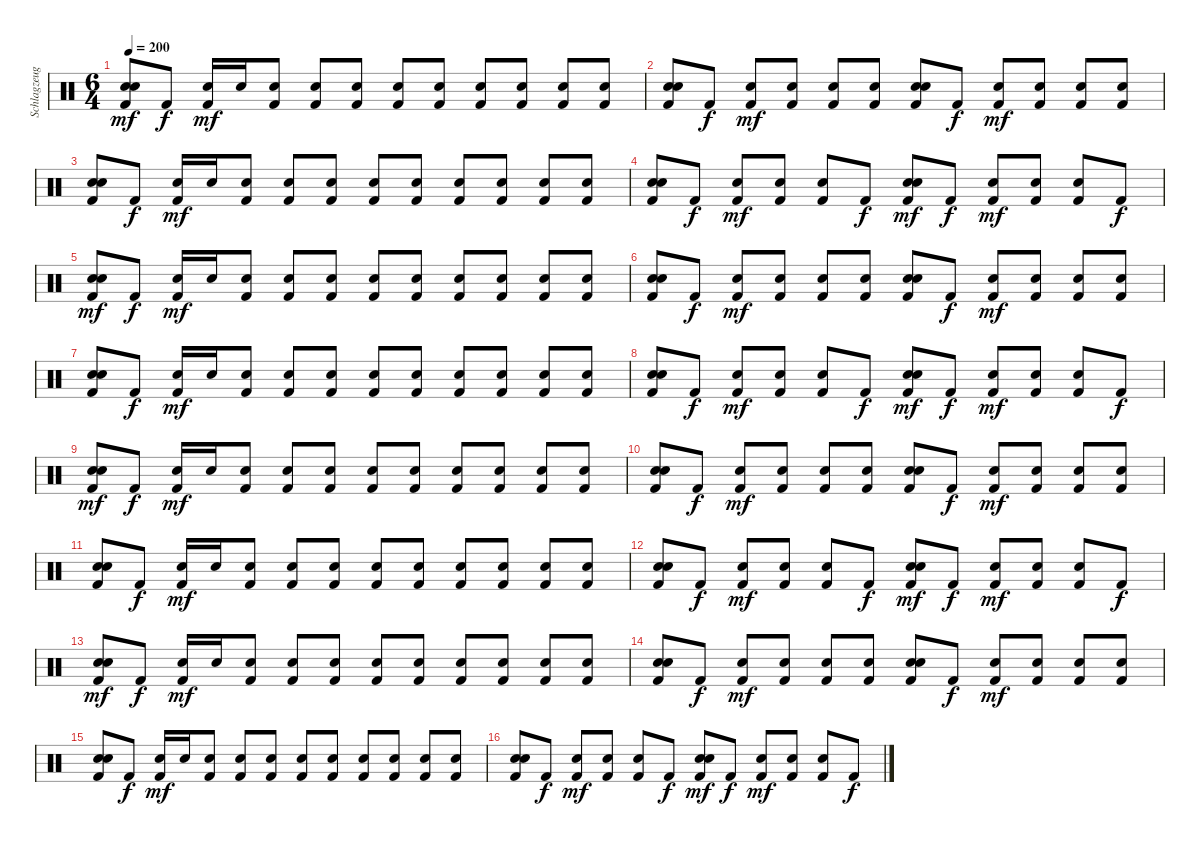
\track ("Schlagzeug" "Schlagzeug") {instrument percussion}
\staff {score}
\articulation defaults
\ts (6 4)
\tempo 200
\clef neutral
\ks c
("Electric Snare (hit)" "Electric Snare (hit)" "Kick (hit) 2").8{bd 480 dy mf} "Kick (hit) 2".8{dy f} ("Electric Snare (hit)" "Kick (hit) 2").16{dy mf} "Electric Snare (hit)".16 ("Electric Snare (hit)" "Kick (hit) 2").8 ("Electric Snare (hit)" "Kick (hit) 2").8 ("Electric Snare (hit)" "Kick (hit) 2").8 ("Electric Snare (hit)" "Kick (hit) 2").8 ("Electric Snare (hit)" "Kick (hit) 2").8 ("Electric Snare (hit)" "Kick (hit) 2").8 ("Electric Snare (hit)" "Kick (hit) 2").8 ("Electric Snare (hit)" "Kick (hit) 2").8 ("Electric Snare (hit)" "Kick (hit) 2").8 |
("Electric Snare (hit)" "Electric Snare (hit)" "Kick (hit) 2").8{bd 480} "Kick (hit) 2".8{dy f} ("Electric Snare (hit)" "Kick (hit) 2").8{dy mf} ("Electric Snare (hit)" "Kick (hit) 2").8 ("Electric Snare (hit)" "Kick (hit) 2").8 ("Electric Snare (hit)" "Kick (hit) 2").8 ("Electric Snare (hit)" "Electric Snare (hit)" "Kick (hit) 2").8{bd 480} "Kick (hit) 2".8{dy f} ("Electric Snare (hit)" "Kick (hit) 2").8{dy mf} ("Electric Snare (hit)" "Kick (hit) 2").8 ("Electric Snare (hit)" "Kick (hit) 2").8 ("Electric Snare (hit)" "Kick (hit) 2").8 |
("Electric Snare (hit)" "Electric Snare (hit)" "Kick (hit) 2").8{bd 480} "Kick (hit) 2".8{dy f} ("Electric Snare (hit)" "Kick (hit) 2").16{dy mf} "Electric Snare (hit)".16 ("Electric Snare (hit)" "Kick (hit) 2").8 ("Electric Snare (hit)" "Kick (hit) 2").8 ("Electric Snare (hit)" "Kick (hit) 2").8 ("Electric Snare (hit)" "Kick (hit) 2").8 ("Electric Snare (hit)" "Kick (hit) 2").8 ("Electric Snare (hit)" "Kick (hit) 2").8 ("Electric Snare (hit)" "Kick (hit) 2").8 ("Electric Snare (hit)" "Kick (hit) 2").8 ("Electric Snare (hit)" "Kick (hit) 2").8 |
("Electric Snare (hit)" "Electric Snare (hit)" "Kick (hit) 2").8{bd 480} "Kick (hit) 2".8{dy f} ("Electric Snare (hit)" "Kick (hit) 2").8{dy mf} ("Electric Snare (hit)" "Kick (hit) 2").8 ("Electric Snare (hit)" "Kick (hit) 2").8 "Kick (hit) 2".8{dy f} ("Electric Snare (hit)" "Electric Snare (hit)" "Kick (hit) 2").8{bd 480 dy mf} "Kick (hit) 2".8{dy f} ("Electric Snare (hit)" "Kick (hit) 2").8{dy mf} ("Electric Snare (hit)" "Kick (hit) 2").8 ("Electric Snare (hit)" "Kick (hit) 2").8 "Kick (hit) 2".8{dy f} |
("Electric Snare (hit)" "Electric Snare (hit)" "Kick (hit) 2").8{bd 480 dy mf} "Kick (hit) 2".8{dy f} ("Electric Snare (hit)" "Kick (hit) 2").16{dy mf} "Electric Snare (hit)".16 ("Electric Snare (hit)" "Kick (hit) 2").8 ("Electric Snare (hit)" "Kick (hit) 2").8 ("Electric Snare (hit)" "Kick (hit) 2").8 ("Electric Snare (hit)" "Kick (hit) 2").8 ("Electric Snare (hit)" "Kick (hit) 2").8 ("Electric Snare (hit)" "Kick (hit) 2").8 ("Electric Snare (hit)" "Kick (hit) 2").8 ("Electric Snare (hit)" "Kick (hit) 2").8 ("Electric Snare (hit)" "Kick (hit) 2").8 |
("Electric Snare (hit)" "Electric Snare (hit)" "Kick (hit) 2").8{bd 480} "Kick (hit) 2".8{dy f} ("Electric Snare (hit)" "Kick (hit) 2").8{dy mf} ("Electric Snare (hit)" "Kick (hit) 2").8 ("Electric Snare (hit)" "Kick (hit) 2").8 ("Electric Snare (hit)" "Kick (hit) 2").8 ("Electric Snare (hit)" "Electric Snare (hit)" "Kick (hit) 2").8{bd 480} "Kick (hit) 2".8{dy f} ("Electric Snare (hit)" "Kick (hit) 2").8{dy mf} ("Electric Snare (hit)" "Kick (hit) 2").8 ("Electric Snare (hit)" "Kick (hit) 2").8 ("Electric Snare (hit)" "Kick (hit) 2").8 |
("Electric Snare (hit)" "Electric Snare (hit)" "Kick (hit) 2").8{bd 480} "Kick (hit) 2".8{dy f} ("Electric Snare (hit)" "Kick (hit) 2").16{dy mf} "Electric Snare (hit)".16 ("Electric Snare (hit)" "Kick (hit) 2").8 ("Electric Snare (hit)" "Kick (hit) 2").8 ("Electric Snare (hit)" "Kick (hit) 2").8 ("Electric Snare (hit)" "Kick (hit) 2").8 ("Electric Snare (hit)" "Kick (hit) 2").8 ("Electric Snare (hit)" "Kick (hit) 2").8 ("Electric Snare (hit)" "Kick (hit) 2").8 ("Electric Snare (hit)" "Kick (hit) 2").8 ("Electric Snare (hit)" "Kick (hit) 2").8 |
("Electric Snare (hit)" "Electric Snare (hit)" "Kick (hit) 2").8{bd 480} "Kick (hit) 2".8{dy f} ("Electric Snare (hit)" "Kick (hit) 2").8{dy mf} ("Electric Snare (hit)" "Kick (hit) 2").8 ("Electric Snare (hit)" "Kick (hit) 2").8 "Kick (hit) 2".8{dy f} ("Electric Snare (hit)" "Electric Snare (hit)" "Kick (hit) 2").8{bd 480 dy mf} "Kick (hit) 2".8{dy f} ("Electric Snare (hit)" "Kick (hit) 2").8{dy mf} ("Electric Snare (hit)" "Kick (hit) 2").8 ("Electric Snare (hit)" "Kick (hit) 2").8 "Kick (hit) 2".8{dy f} |
("Electric Snare (hit)" "Electric Snare (hit)" "Kick (hit) 2").8{bd 480 dy mf} "Kick (hit) 2".8{dy f} ("Electric Snare (hit)" "Kick (hit) 2").16{dy mf} "Electric Snare (hit)".16 ("Electric Snare (hit)" "Kick (hit) 2").8 ("Electric Snare (hit)" "Kick (hit) 2").8 ("Electric Snare (hit)" "Kick (hit) 2").8 ("Electric Snare (hit)" "Kick (hit) 2").8 ("Electric Snare (hit)" "Kick (hit) 2").8 ("Electric Snare (hit)" "Kick (hit) 2").8 ("Electric Snare (hit)" "Kick (hit) 2").8 ("Electric Snare (hit)" "Kick (hit) 2").8 ("Electric Snare (hit)" "Kick (hit) 2").8 |
("Electric Snare (hit)" "Electric Snare (hit)" "Kick (hit) 2").8{bd 480} "Kick (hit) 2".8{dy f} ("Electric Snare (hit)" "Kick (hit) 2").8{dy mf} ("Electric Snare (hit)" "Kick (hit) 2").8 ("Electric Snare (hit)" "Kick (hit) 2").8 ("Electric Snare (hit)" "Kick (hit) 2").8 ("Electric Snare (hit)" "Electric Snare (hit)" "Kick (hit) 2").8{bd 480} "Kick (hit) 2".8{dy f} ("Electric Snare (hit)" "Kick (hit) 2").8{dy mf} ("Electric Snare (hit)" "Kick (hit) 2").8 ("Electric Snare (hit)" "Kick (hit) 2").8 ("Electric Snare (hit)" "Kick (hit) 2").8 |
("Electric Snare (hit)" "Electric Snare (hit)" "Kick (hit) 2").8{bd 480} "Kick (hit) 2".8{dy f} ("Electric Snare (hit)" "Kick (hit) 2").16{dy mf} "Electric Snare (hit)".16 ("Electric Snare (hit)" "Kick (hit) 2").8 ("Electric Snare (hit)" "Kick (hit) 2").8 ("Electric Snare (hit)" "Kick (hit) 2").8 ("Electric Snare (hit)" "Kick (hit) 2").8 ("Electric Snare (hit)" "Kick (hit) 2").8 ("Electric Snare (hit)" "Kick (hit) 2").8 ("Electric Snare (hit)" "Kick (hit) 2").8 ("Electric Snare (hit)" "Kick (hit) 2").8 ("Electric Snare (hit)" "Kick (hit) 2").8 |
("Electric Snare (hit)" "Electric Snare (hit)" "Kick (hit) 2").8{bd 480} "Kick (hit) 2".8{dy f} ("Electric Snare (hit)" "Kick (hit) 2").8{dy mf} ("Electric Snare (hit)" "Kick (hit) 2").8 ("Electric Snare (hit)" "Kick (hit) 2").8 "Kick (hit) 2".8{dy f} ("Electric Snare (hit)" "Electric Snare (hit)" "Kick (hit) 2").8{bd 480 dy mf} "Kick (hit) 2".8{dy f} ("Electric Snare (hit)" "Kick (hit) 2").8{dy mf} ("Electric Snare (hit)" "Kick (hit) 2").8 ("Electric Snare (hit)" "Kick (hit) 2").8 "Kick (hit) 2".8{dy f} |
("Electric Snare (hit)" "Electric Snare (hit)" "Kick (hit) 2").8{bd 480 dy mf} "Kick (hit) 2".8{dy f} ("Electric Snare (hit)" "Kick (hit) 2").16{dy mf} "Electric Snare (hit)".16 ("Electric Snare (hit)" "Kick (hit) 2").8 ("Electric Snare (hit)" "Kick (hit) 2").8 ("Electric Snare (hit)" "Kick (hit) 2").8 ("Electric Snare (hit)" "Kick (hit) 2").8 ("Electric Snare (hit)" "Kick (hit) 2").8 ("Electric Snare (hit)" "Kick (hit) 2").8 ("Electric Snare (hit)" "Kick (hit) 2").8 ("Electric Snare (hit)" "Kick (hit) 2").8 ("Electric Snare (hit)" "Kick (hit) 2").8 |
("Electric Snare (hit)" "Electric Snare (hit)" "Kick (hit) 2").8{bd 480} "Kick (hit) 2".8{dy f} ("Electric Snare (hit)" "Kick (hit) 2").8{dy mf} ("Electric Snare (hit)" "Kick (hit) 2").8 ("Electric Snare (hit)" "Kick (hit) 2").8 ("Electric Snare (hit)" "Kick (hit) 2").8 ("Electric Snare (hit)" "Electric Snare (hit)" "Kick (hit) 2").8{bd 480} "Kick (hit) 2".8{dy f} ("Electric Snare (hit)" "Kick (hit) 2").8{dy mf} ("Electric Snare (hit)" "Kick (hit) 2").8 ("Electric Snare (hit)" "Kick (hit) 2").8 ("Electric Snare (hit)" "Kick (hit) 2").8 |
("Electric Snare (hit)" "Electric Snare (hit)" "Kick (hit) 2").8{bd 480} "Kick (hit) 2".8{dy f} ("Electric Snare (hit)" "Kick (hit) 2").16{dy mf} "Electric Snare (hit)".16 ("Electric Snare (hit)" "Kick (hit) 2").8 ("Electric Snare (hit)" "Kick (hit) 2").8 ("Electric Snare (hit)" "Kick (hit) 2").8 ("Electric Snare (hit)" "Kick (hit) 2").8 ("Electric Snare (hit)" "Kick (hit) 2").8 ("Electric Snare (hit)" "Kick (hit) 2").8 ("Electric Snare (hit)" "Kick (hit) 2").8 ("Electric Snare (hit)" "Kick (hit) 2").8 ("Electric Snare (hit)" "Kick (hit) 2").8 |
("Electric Snare (hit)" "Electric Snare (hit)" "Kick (hit) 2").8{bd 480} "Kick (hit) 2".8{dy f} ("Electric Snare (hit)" "Kick (hit) 2").8{dy mf} ("Electric Snare (hit)" "Kick (hit) 2").8 ("Electric Snare (hit)" "Kick (hit) 2").8 "Kick (hit) 2".8{dy f} ("Electric Snare (hit)" "Electric Snare (hit)" "Kick (hit) 2").8{bd 480 dy mf} "Kick (hit) 2".8{dy f} ("Electric Snare (hit)" "Kick (hit) 2").8{dy mf} ("Electric Snare (hit)" "Kick (hit) 2").8 ("Electric Snare (hit)" "Kick (hit) 2").8 "Kick (hit) 2".8{dy f}
